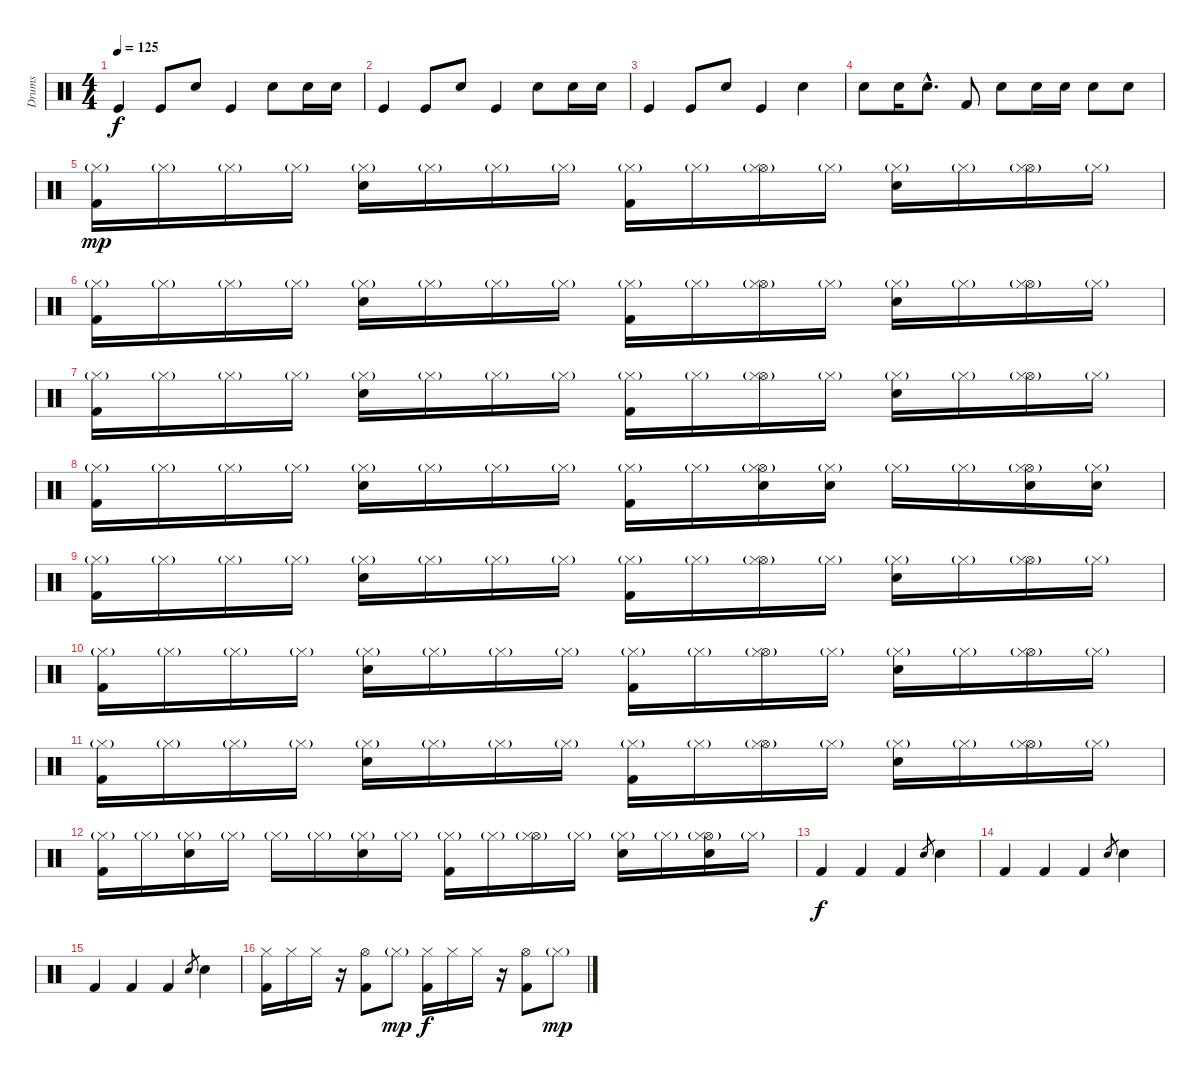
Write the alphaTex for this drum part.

\track ("Drums" "Drums") {instrument percussion}
\staff {score}
\articulation defaults
\ts (4 4)
\tempo 125
\clef neutral
\ks c "Kick (hit)".4{dy f} "Kick (hit)".8 "Snare (hit) 2".8 "Kick (hit)".4 "Snare (hit) 2".8 "Snare (hit) 2".16 "Snare (hit) 2".16
|
"Kick (hit)".4 "Kick (hit)".8 "Snare (hit) 2".8 "Kick (hit)".4 "Snare (hit) 2".8 "Snare (hit) 2".16 "Snare (hit) 2".16 |
"Kick (hit)".4 "Kick (hit)".8 "Snare (hit) 2".8 "Kick (hit)".4 "Snare (hit) 2".4 |
"Snare (hit) 2".8 "Snare (hit) 2".16 "Snare (hit) 2"{hac}.8{d} "Kick (hit) 2".8 "Snare (hit) 2".8 "Snare (hit) 2".16 "Snare (hit) 2".16 "Snare (hit) 2".8 "Snare (hit) 2".8 |
("Kick (hit) 2" "Hi-Hat (closed)"{g}).16{dy mp} "Hi-Hat (closed)"{g}.16 "Hi-Hat (closed)"{g}.16 "Hi-Hat (closed)"{g}.16 ("Snare (hit) 2" "Hi-Hat (closed)"{g}).16 "Hi-Hat (closed)"{g}.16 "Hi-Hat (closed)"{g}.16 "Hi-Hat (closed)"{g}.16 ("Kick (hit) 2" "Hi-Hat (closed)"{g}).16 "Hi-Hat (closed)"{g}.16 ("Hi-Hat (open)"{g} "Hi-Hat (closed)"{g}).16 "Hi-Hat (closed)"{g}.16 ("Snare (hit) 2" "Hi-Hat (closed)"{g}).16 "Hi-Hat (closed)"{g}.16 ("Hi-Hat (open)"{g} "Hi-Hat (closed)"{g}).16 "Hi-Hat (closed)"{g}.16 |
("Kick (hit) 2" "Hi-Hat (closed)"{g}).16 "Hi-Hat (closed)"{g}.16 "Hi-Hat (closed)"{g}.16 "Hi-Hat (closed)"{g}.16 ("Snare (hit) 2" "Hi-Hat (closed)"{g}).16 "Hi-Hat (closed)"{g}.16 "Hi-Hat (closed)"{g}.16 "Hi-Hat (closed)"{g}.16 ("Kick (hit) 2" "Hi-Hat (closed)"{g}).16 "Hi-Hat (closed)"{g}.16 ("Hi-Hat (open)"{g} "Hi-Hat (closed)"{g}).16 "Hi-Hat (closed)"{g}.16 ("Snare (hit) 2" "Hi-Hat (closed)"{g}).16 "Hi-Hat (closed)"{g}.16 ("Hi-Hat (open)"{g} "Hi-Hat (closed)"{g}).16 "Hi-Hat (closed)"{g}.16 |
("Kick (hit) 2" "Hi-Hat (closed)"{g}).16 "Hi-Hat (closed)"{g}.16 "Hi-Hat (closed)"{g}.16 "Hi-Hat (closed)"{g}.16 ("Snare (hit) 2" "Hi-Hat (closed)"{g}).16 "Hi-Hat (closed)"{g}.16 "Hi-Hat (closed)"{g}.16 "Hi-Hat (closed)"{g}.16 ("Kick (hit) 2" "Hi-Hat (closed)"{g}).16 "Hi-Hat (closed)"{g}.16 ("Hi-Hat (open)"{g} "Hi-Hat (closed)"{g}).16 "Hi-Hat (closed)"{g}.16 ("Snare (hit) 2" "Hi-Hat (closed)"{g}).16 "Hi-Hat (closed)"{g}.16 ("Hi-Hat (open)"{g} "Hi-Hat (closed)"{g}).16 "Hi-Hat (closed)"{g}.16 |
("Kick (hit) 2" "Hi-Hat (closed)"{g}).16 "Hi-Hat (closed)"{g}.16 "Hi-Hat (closed)"{g}.16 "Hi-Hat (closed)"{g}.16 ("Snare (hit) 2" "Hi-Hat (closed)"{g}).16 "Hi-Hat (closed)"{g}.16 "Hi-Hat (closed)"{g}.16 "Hi-Hat (closed)"{g}.16 ("Kick (hit) 2" "Hi-Hat (closed)"{g}).16 "Hi-Hat (closed)"{g}.16 ("Hi-Hat (open)"{g} "Snare (hit) 2" "Hi-Hat (closed)"{g}).16 ("Snare (hit) 2" "Hi-Hat (closed)"{g}).16 "Hi-Hat (closed)"{g}.16 "Hi-Hat (closed)"{g}.16 ("Hi-Hat (open)"{g} "Snare (hit) 2" "Hi-Hat (closed)"{g}).16 ("Snare (hit) 2" "Hi-Hat (closed)"{g}).16 |
("Kick (hit) 2" "Hi-Hat (closed)"{g}).16 "Hi-Hat (closed)"{g}.16 "Hi-Hat (closed)"{g}.16 "Hi-Hat (closed)"{g}.16 ("Snare (hit) 2" "Hi-Hat (closed)"{g}).16 "Hi-Hat (closed)"{g}.16 "Hi-Hat (closed)"{g}.16 "Hi-Hat (closed)"{g}.16 ("Kick (hit) 2" "Hi-Hat (closed)"{g}).16 "Hi-Hat (closed)"{g}.16 ("Hi-Hat (open)"{g} "Hi-Hat (closed)"{g}).16 "Hi-Hat (closed)"{g}.16 ("Snare (hit) 2" "Hi-Hat (closed)"{g}).16 "Hi-Hat (closed)"{g}.16 ("Hi-Hat (open)"{g} "Hi-Hat (closed)"{g}).16 "Hi-Hat (closed)"{g}.16 |
("Kick (hit) 2" "Hi-Hat (closed)"{g}).16 "Hi-Hat (closed)"{g}.16 "Hi-Hat (closed)"{g}.16 "Hi-Hat (closed)"{g}.16 ("Snare (hit) 2" "Hi-Hat (closed)"{g}).16 "Hi-Hat (closed)"{g}.16 "Hi-Hat (closed)"{g}.16 "Hi-Hat (closed)"{g}.16 ("Kick (hit) 2" "Hi-Hat (closed)"{g}).16 "Hi-Hat (closed)"{g}.16 ("Hi-Hat (open)"{g} "Hi-Hat (closed)"{g}).16 "Hi-Hat (closed)"{g}.16 ("Snare (hit) 2" "Hi-Hat (closed)"{g}).16 "Hi-Hat (closed)"{g}.16 ("Hi-Hat (open)"{g} "Hi-Hat (closed)"{g}).16 "Hi-Hat (closed)"{g}.16 |
("Kick (hit) 2" "Hi-Hat (closed)"{g}).16 "Hi-Hat (closed)"{g}.16 "Hi-Hat (closed)"{g}.16 "Hi-Hat (closed)"{g}.16 ("Snare (hit) 2" "Hi-Hat (closed)"{g}).16 "Hi-Hat (closed)"{g}.16 "Hi-Hat (closed)"{g}.16 "Hi-Hat (closed)"{g}.16 ("Kick (hit) 2" "Hi-Hat (closed)"{g}).16 "Hi-Hat (closed)"{g}.16 ("Hi-Hat (open)"{g} "Hi-Hat (closed)"{g}).16 "Hi-Hat (closed)"{g}.16 ("Snare (hit) 2" "Hi-Hat (closed)"{g}).16 "Hi-Hat (closed)"{g}.16 ("Hi-Hat (open)"{g} "Hi-Hat (closed)"{g}).16 "Hi-Hat (closed)"{g}.16 |
("Kick (hit) 2" "Hi-Hat (closed)"{g}).16 "Hi-Hat (closed)"{g}.16 ("Snare (hit) 2" "Hi-Hat (closed)"{g}).16 "Hi-Hat (closed)"{g}.16 "Hi-Hat (closed)"{g}.16 "Hi-Hat (closed)"{g}.16 ("Snare (hit) 2" "Hi-Hat (closed)"{g}).16 "Hi-Hat (closed)"{g}.16 ("Kick (hit) 2" "Hi-Hat (closed)"{g}).16 "Hi-Hat (closed)"{g}.16 ("Hi-Hat (open)"{g} "Hi-Hat (closed)"{g}).16 "Hi-Hat (closed)"{g}.16 ("Snare (hit) 2" "Hi-Hat (closed)"{g}).16 "Hi-Hat (closed)"{g}.16 ("Hi-Hat (open)"{g} "Snare (hit) 2" "Hi-Hat (closed)"{g}).16 "Hi-Hat (closed)"{g}.16 |
"Kick (hit) 2".4{dy f} "Kick (hit) 2".4 "Kick (hit) 2".4 "Snare (hit) 2".8{gr} "Snare (hit) 2".4 |
"Kick (hit) 2".4 "Kick (hit) 2".4 "Kick (hit) 2".4 "Snare (hit) 2".8{gr} "Snare (hit) 2".4 |
"Kick (hit) 2".4 "Kick (hit) 2".4 "Kick (hit) 2".4 "Snare (hit) 2".8{gr} "Snare (hit) 2".4 |
("Hi-Hat (closed)" "Kick (hit) 2").16{balance 0} "Hi-Hat (closed)".16 "Hi-Hat (closed)".16 r.16 ("Hi-Hat (open)" "Kick (hit) 2").8 "Hi-Hat (closed)"{g}.8{dy mp balance 16} ("Hi-Hat (closed)" "Kick (hit) 2").16{dy f} "Hi-Hat (closed)".16 "Hi-Hat (closed)".16 r.16 ("Hi-Hat (open)" "Kick (hit) 2").8 "Hi-Hat (closed)"{g}.8{dy mp}
